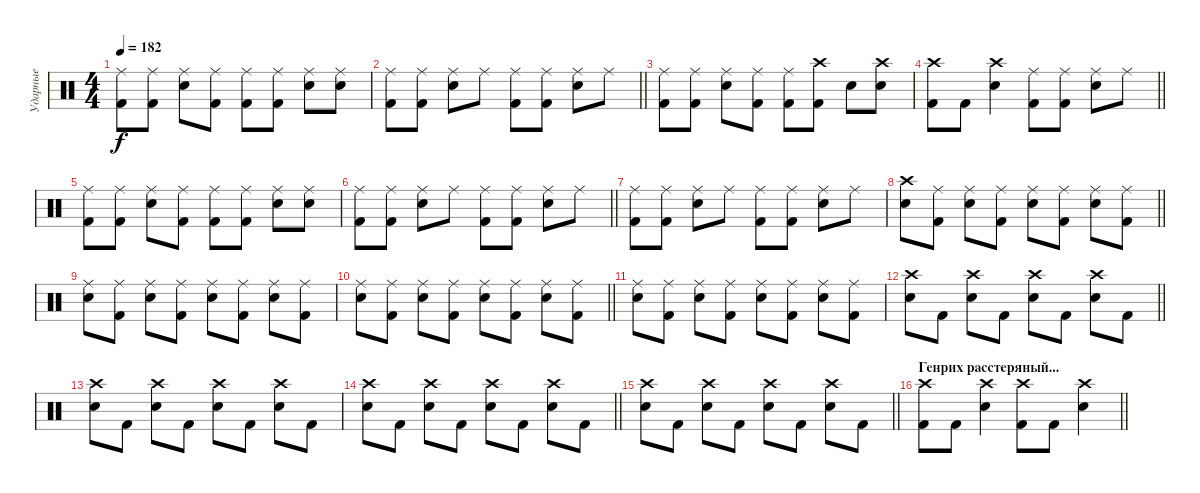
\track ("Ударные" "Ударные") {instrument percussion}
\staff {score}
\articulation defaults
\ts (4 4)
\tempo 182
\clef neutral
\ks c
("Ride (middle)" "Kick (hit) 2").8{dy f} ("Ride (middle)" "Kick (hit) 2").8 ("Ride (middle)" "Snare (hit) 2").8 ("Ride (middle)" "Kick (hit) 2").8 ("Ride (middle)" "Kick (hit) 2").8 ("Ride (middle)" "Kick (hit) 2").8 ("Ride (middle)" "Snare (hit) 2").8 ("Ride (middle)" "Snare (hit) 2").8 |
\barLineRight lightlight
("Ride (middle)" "Kick (hit) 2").8 ("Ride (middle)" "Kick (hit) 2").8 ("Ride (middle)" "Snare (hit) 2").8 "Ride (middle)".8 ("Ride (middle)" "Kick (hit) 2").8 ("Ride (middle)" "Kick (hit) 2").8 ("Ride (middle)" "Snare (hit) 2").8 "Ride (middle)".8 |
("Ride (middle)" "Kick (hit) 2").8 ("Ride (middle)" "Kick (hit) 2").8 ("Ride (middle)" "Snare (hit) 2").8 ("Ride (middle)" "Kick (hit) 2").8 ("Ride (middle)" "Kick (hit) 2").8 ("Crash high (hit)" "Kick (hit) 2").8 "Snare (hit) 2".8 ("Crash high (hit)" "Snare (hit) 2").8 |
\barLineRight lightlight
("Crash high (hit)" "Kick (hit) 2").8 "Kick (hit) 2".8 ("Crash high (hit)" "Snare (hit) 2").4 ("Ride (middle)" "Kick (hit) 2").8 ("Ride (middle)" "Kick (hit) 2").8 ("Ride (middle)" "Snare (hit) 2").8 "Ride (middle)".8 |
("Ride (middle)" "Kick (hit) 2").8 ("Ride (middle)" "Kick (hit) 2").8 ("Ride (middle)" "Snare (hit) 2").8 ("Ride (middle)" "Kick (hit) 2").8 ("Ride (middle)" "Kick (hit) 2").8 ("Ride (middle)" "Kick (hit) 2").8 ("Ride (middle)" "Snare (hit) 2").8 ("Ride (middle)" "Snare (hit) 2").8 |
\barLineRight lightlight
("Ride (middle)" "Kick (hit) 2").8 ("Ride (middle)" "Kick (hit) 2").8 ("Ride (middle)" "Snare (hit) 2").8 "Ride (middle)".8 ("Ride (middle)" "Kick (hit) 2").8 ("Ride (middle)" "Kick (hit) 2").8 ("Ride (middle)" "Snare (hit) 2").8 "Ride (middle)".8 |
("Ride (middle)" "Kick (hit) 2").8 ("Ride (middle)" "Kick (hit) 2").8 ("Ride (middle)" "Snare (hit) 2").8 "Ride (middle)".8 ("Ride (middle)" "Kick (hit) 2").8 ("Ride (middle)" "Kick (hit) 2").8 ("Ride (middle)" "Snare (hit) 2").8 "Ride (middle)".8 |
\barLineRight lightlight
("Crash high (hit)" "Snare (hit) 2").8 ("Ride (middle)" "Kick (hit) 2").8 ("Ride (middle)" "Snare (hit) 2").8 ("Ride (middle)" "Kick (hit) 2").8 ("Ride (middle)" "Snare (hit) 2").8 ("Ride (middle)" "Kick (hit) 2").8 ("Ride (middle)" "Snare (hit) 2").8 ("Ride (middle)" "Kick (hit) 2").8 |
("Ride (middle)" "Snare (hit) 2").8 ("Ride (middle)" "Kick (hit) 2").8 ("Ride (middle)" "Snare (hit) 2").8 ("Ride (middle)" "Kick (hit) 2").8 ("Ride (middle)" "Snare (hit) 2").8 ("Ride (middle)" "Kick (hit) 2").8 ("Ride (middle)" "Snare (hit) 2").8 ("Ride (middle)" "Kick (hit) 2").8 |
\barLineRight lightlight
("Ride (middle)" "Snare (hit) 2").8 ("Ride (middle)" "Kick (hit) 2").8 ("Ride (middle)" "Snare (hit) 2").8 ("Ride (middle)" "Kick (hit) 2").8 ("Ride (middle)" "Snare (hit) 2").8 ("Ride (middle)" "Kick (hit) 2").8 ("Ride (middle)" "Snare (hit) 2").8 ("Ride (middle)" "Kick (hit) 2").8 |
("Ride (middle)" "Snare (hit) 2").8 ("Ride (middle)" "Kick (hit) 2").8 ("Ride (middle)" "Snare (hit) 2").8 ("Ride (middle)" "Kick (hit) 2").8 ("Ride (middle)" "Snare (hit) 2").8 ("Ride (middle)" "Kick (hit) 2").8 ("Ride (middle)" "Snare (hit) 2").8 ("Ride (middle)" "Kick (hit) 2").8 |
\barLineRight lightlight
("Crash high (hit)" "Snare (hit) 2").8 "Kick (hit) 2".8 ("Crash high (hit)" "Snare (hit) 2").8 "Kick (hit) 2".8 ("Crash high (hit)" "Snare (hit) 2").8 "Kick (hit) 2".8 ("Crash high (hit)" "Snare (hit) 2").8 "Kick (hit) 2".8 |
("Crash high (hit)" "Snare (hit) 2").8 "Kick (hit) 2".8 ("Crash high (hit)" "Snare (hit) 2").8 "Kick (hit) 2".8 ("Crash high (hit)" "Snare (hit) 2").8 "Kick (hit) 2".8 ("Crash high (hit)" "Snare (hit) 2").8 "Kick (hit) 2".8 |
\barLineRight lightlight
("Crash high (hit)" "Snare (hit) 2").8 "Kick (hit) 2".8 ("Crash high (hit)" "Snare (hit) 2").8 "Kick (hit) 2".8 ("Crash high (hit)" "Snare (hit) 2").8 "Kick (hit) 2".8 ("Crash high (hit)" "Snare (hit) 2").8 "Kick (hit) 2".8 |
\barLineRight lightlight
("Crash high (hit)" "Snare (hit) 2").8 "Kick (hit) 2".8 ("Crash high (hit)" "Snare (hit) 2").8 "Kick (hit) 2".8 ("Crash high (hit)" "Snare (hit) 2").8 "Kick (hit) 2".8 ("Crash high (hit)" "Snare (hit) 2").8 "Kick (hit) 2".8 |
\section ("" "Генрих расстеряный...")
\barLineRight lightlight
("Crash high (hit)" "Kick (hit) 2").8 "Kick (hit) 2".8 ("Crash high (hit)" "Snare (hit) 2").4 ("Crash high (hit)" "Kick (hit) 2").8 "Kick (hit) 2".8 ("Crash high (hit)" "Snare (hit) 2").4
